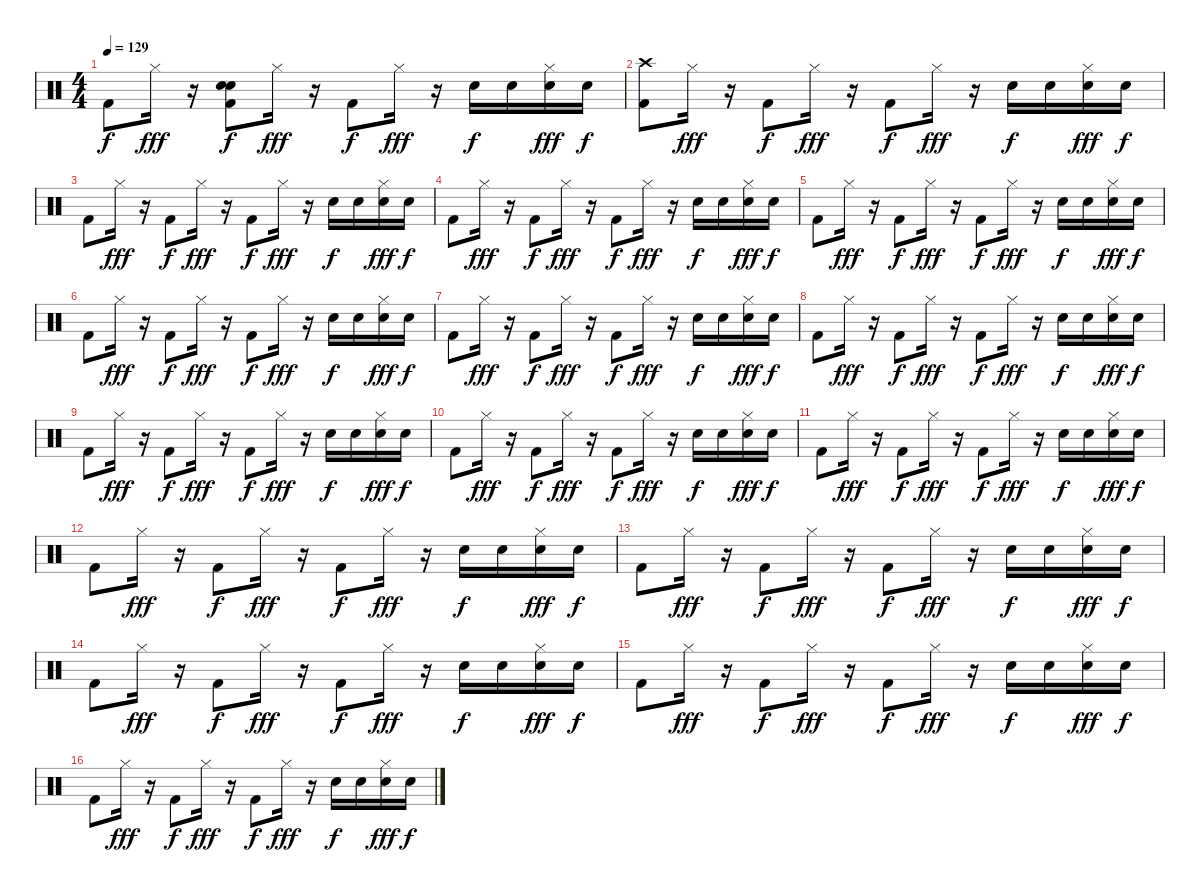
\track "" {instrument percussion}
\staff {score}
\articulation defaults
\ts (4 4)
\tempo 129
\clef neutral
\ks c "Kick (hit) 2".8{dy f} "Hi-Hat (closed)".16{dy fff}
r.16 ("Snare (hit) 2" "Hand Clap (hit)" "Kick (hit) 2").8{dy f} "Hi-Hat (closed)".16{dy fff} r.16 "Kick (hit) 2".8{dy f} "Hi-Hat (closed)".16{dy fff} r.16 "Snare (hit) 2".16{dy f} "Snare (hit) 2".16 ("Snare (hit) 2" "Hi-Hat (closed)").16{dy fff} "Snare (hit) 2".16{dy f} |
("Kick (hit) 2" "Crash high (hit)").8 "Hi-Hat (closed)".16{dy fff} r.16 "Kick (hit) 2".8{dy f} "Hi-Hat (closed)".16{dy fff} r.16 "Kick (hit) 2".8{dy f} "Hi-Hat (closed)".16{dy fff} r.16 "Snare (hit) 2".16{dy f} "Snare (hit) 2".16 ("Snare (hit) 2" "Hi-Hat (closed)").16{dy fff} "Snare (hit) 2".16{dy f} |
"Kick (hit) 2".8 "Hi-Hat (closed)".16{dy fff} r.16 "Kick (hit) 2".8{dy f} "Hi-Hat (closed)".16{dy fff} r.16 "Kick (hit) 2".8{dy f} "Hi-Hat (closed)".16{dy fff} r.16 "Snare (hit) 2".16{dy f} "Snare (hit) 2".16 ("Snare (hit) 2" "Hi-Hat (closed)").16{dy fff} "Snare (hit) 2".16{dy f} |
"Kick (hit) 2".8 "Hi-Hat (closed)".16{dy fff} r.16 "Kick (hit) 2".8{dy f} "Hi-Hat (closed)".16{dy fff} r.16 "Kick (hit) 2".8{dy f} "Hi-Hat (closed)".16{dy fff} r.16 "Snare (hit) 2".16{dy f} "Snare (hit) 2".16 ("Snare (hit) 2" "Hi-Hat (closed)").16{dy fff} "Snare (hit) 2".16{dy f} |
"Kick (hit) 2".8 "Hi-Hat (closed)".16{dy fff} r.16 "Kick (hit) 2".8{dy f} "Hi-Hat (closed)".16{dy fff} r.16 "Kick (hit) 2".8{dy f} "Hi-Hat (closed)".16{dy fff} r.16 "Snare (hit) 2".16{dy f} "Snare (hit) 2".16 ("Snare (hit) 2" "Hi-Hat (closed)").16{dy fff} "Snare (hit) 2".16{dy f} |
"Kick (hit) 2".8 "Hi-Hat (closed)".16{dy fff} r.16 "Kick (hit) 2".8{dy f} "Hi-Hat (closed)".16{dy fff} r.16 "Kick (hit) 2".8{dy f} "Hi-Hat (closed)".16{dy fff} r.16 "Snare (hit) 2".16{dy f} "Snare (hit) 2".16 ("Snare (hit) 2" "Hi-Hat (closed)").16{dy fff} "Snare (hit) 2".16{dy f} |
"Kick (hit) 2".8 "Hi-Hat (closed)".16{dy fff} r.16 "Kick (hit) 2".8{dy f} "Hi-Hat (closed)".16{dy fff} r.16 "Kick (hit) 2".8{dy f} "Hi-Hat (closed)".16{dy fff} r.16 "Snare (hit) 2".16{dy f} "Snare (hit) 2".16 ("Snare (hit) 2" "Hi-Hat (closed)").16{dy fff} "Snare (hit) 2".16{dy f} |
"Kick (hit) 2".8 "Hi-Hat (closed)".16{dy fff} r.16 "Kick (hit) 2".8{dy f} "Hi-Hat (closed)".16{dy fff} r.16 "Kick (hit) 2".8{dy f} "Hi-Hat (closed)".16{dy fff} r.16 "Snare (hit) 2".16{dy f} "Snare (hit) 2".16 ("Snare (hit) 2" "Hi-Hat (closed)").16{dy fff} "Snare (hit) 2".16{dy f} |
"Kick (hit) 2".8 "Hi-Hat (closed)".16{dy fff} r.16 "Kick (hit) 2".8{dy f} "Hi-Hat (closed)".16{dy fff} r.16 "Kick (hit) 2".8{dy f} "Hi-Hat (closed)".16{dy fff} r.16 "Snare (hit) 2".16{dy f} "Snare (hit) 2".16 ("Snare (hit) 2" "Hi-Hat (closed)").16{dy fff} "Snare (hit) 2".16{dy f} |
"Kick (hit) 2".8 "Hi-Hat (closed)".16{dy fff} r.16 "Kick (hit) 2".8{dy f} "Hi-Hat (closed)".16{dy fff} r.16 "Kick (hit) 2".8{dy f} "Hi-Hat (closed)".16{dy fff} r.16 "Snare (hit) 2".16{dy f} "Snare (hit) 2".16 ("Snare (hit) 2" "Hi-Hat (closed)").16{dy fff} "Snare (hit) 2".16{dy f} |
"Kick (hit) 2".8 "Hi-Hat (closed)".16{dy fff} r.16 "Kick (hit) 2".8{dy f} "Hi-Hat (closed)".16{dy fff} r.16 "Kick (hit) 2".8{dy f} "Hi-Hat (closed)".16{dy fff} r.16 "Snare (hit) 2".16{dy f} "Snare (hit) 2".16 ("Snare (hit) 2" "Hi-Hat (closed)").16{dy fff} "Snare (hit) 2".16{dy f} |
"Kick (hit) 2".8 "Hi-Hat (closed)".16{dy fff} r.16 "Kick (hit) 2".8{dy f} "Hi-Hat (closed)".16{dy fff} r.16 "Kick (hit) 2".8{dy f} "Hi-Hat (closed)".16{dy fff} r.16 "Snare (hit) 2".16{dy f} "Snare (hit) 2".16 ("Snare (hit) 2" "Hi-Hat (closed)").16{dy fff} "Snare (hit) 2".16{dy f} |
"Kick (hit) 2".8 "Hi-Hat (closed)".16{dy fff} r.16 "Kick (hit) 2".8{dy f} "Hi-Hat (closed)".16{dy fff} r.16 "Kick (hit) 2".8{dy f} "Hi-Hat (closed)".16{dy fff} r.16 "Snare (hit) 2".16{dy f} "Snare (hit) 2".16 ("Snare (hit) 2" "Hi-Hat (closed)").16{dy fff} "Snare (hit) 2".16{dy f} |
"Kick (hit) 2".8 "Hi-Hat (closed)".16{dy fff} r.16 "Kick (hit) 2".8{dy f} "Hi-Hat (closed)".16{dy fff} r.16 "Kick (hit) 2".8{dy f} "Hi-Hat (closed)".16{dy fff} r.16 "Snare (hit) 2".16{dy f} "Snare (hit) 2".16 ("Snare (hit) 2" "Hi-Hat (closed)").16{dy fff} "Snare (hit) 2".16{dy f} |
"Kick (hit) 2".8 "Hi-Hat (closed)".16{dy fff} r.16 "Kick (hit) 2".8{dy f} "Hi-Hat (closed)".16{dy fff} r.16 "Kick (hit) 2".8{dy f} "Hi-Hat (closed)".16{dy fff} r.16 "Snare (hit) 2".16{dy f} "Snare (hit) 2".16 ("Snare (hit) 2" "Hi-Hat (closed)").16{dy fff} "Snare (hit) 2".16{dy f} |
"Kick (hit) 2".8 "Hi-Hat (closed)".16{dy fff} r.16 "Kick (hit) 2".8{dy f} "Hi-Hat (closed)".16{dy fff} r.16 "Kick (hit) 2".8{dy f} "Hi-Hat (closed)".16{dy fff} r.16 "Snare (hit) 2".16{dy f} "Snare (hit) 2".16 ("Snare (hit) 2" "Hi-Hat (closed)").16{dy fff} "Snare (hit) 2".16{dy f}
